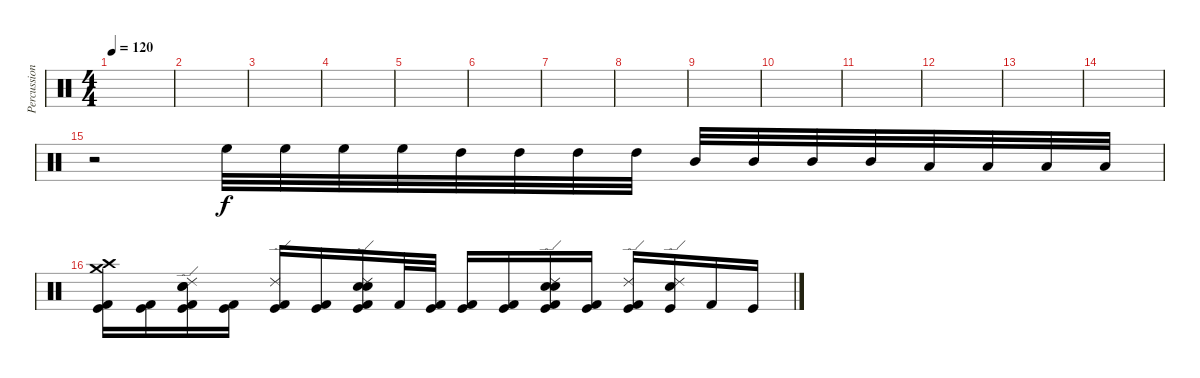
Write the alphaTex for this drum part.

\track ("Percussion" "Percussion") {instrument percussion}
\staff {score}
\articulation defaults
\ts (4 4)
\tempo 120
\clef neutral
\ks c
|
|
|
|
|
|
|
|
|
|
|
|
|
|
r.2 "High Floor Tom (hit)".32 "High Floor Tom (hit)".32 "High Floor Tom (hit)".32 "High Floor Tom (hit)".32 "High Tom (hit)".32 "High Tom (hit)".32 "High Tom (hit)".32 "High Tom (hit)".32 "Mid Tom (hit)".32 "Mid Tom (hit)".32 "Mid Tom (hit)".32 "Mid Tom (hit)".32 "Low Tom (hit)".32 "Low Tom (hit)".32 "Low Tom (hit)".32 "Low Tom (hit)".32 |
("Crash high (hit)" "Crash medium (hit)" "Kick (hit) 2" "Kick (hit)").16 ("Kick (hit) 2" "Kick (hit)").16 ("Ride (edge) 2" "Electric Snare (hit)" "Snare (hit) 2" "Kick (hit) 2" "Kick (hit)").16 ("Kick (hit) 2" "Kick (hit)").16 ("Ride (edge) 2" "Kick (hit) 2" "Kick (hit)").16 ("Kick (hit) 2" "Kick (hit)").16 ("Ride (edge) 2" "Electric Snare (hit)" "Snare (hit) 2" "Kick (hit) 2" "Kick (hit)").16 "Kick (hit) 2".32 ("Kick (hit) 2" "Kick (hit)").32 ("Kick (hit) 2" "Kick (hit)").16 ("Kick (hit) 2" "Kick (hit)").16 ("Ride (edge) 2" "Electric Snare (hit)" "Snare (hit) 2" "Kick (hit) 2" "Kick (hit)").16 ("Kick (hit) 2" "Kick (hit)").16 ("Ride (edge) 2" "Kick (hit) 2" "Kick (hit)").16 ("Snare (hit) 2" "Kick (hit)" "Ride (edge) 2").16 "Kick (hit) 2".16 "Kick (hit)".16
